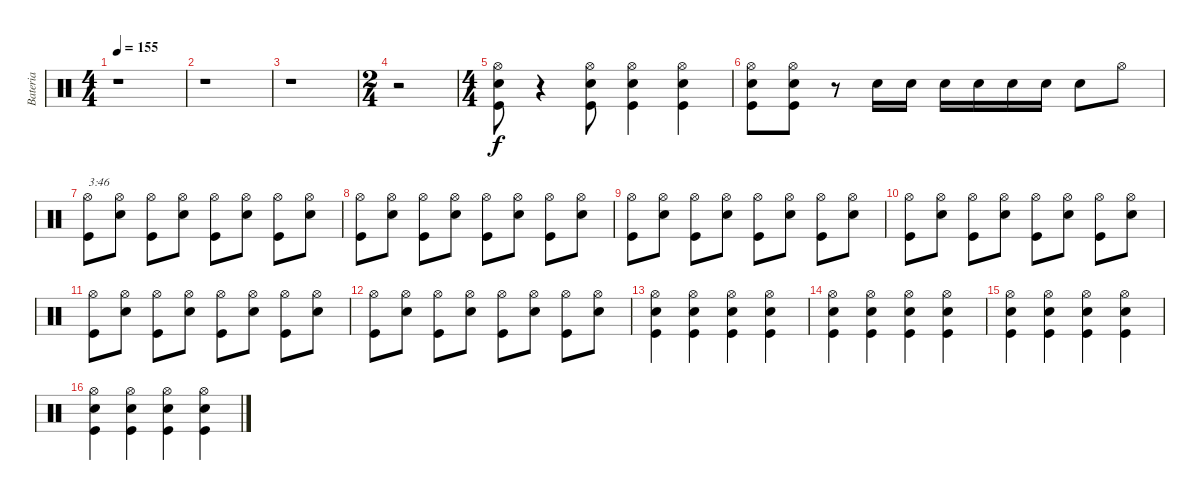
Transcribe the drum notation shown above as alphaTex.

\track ("Bateria" "Bateria") {instrument percussion}
\staff {score}
\articulation defaults
\ts (4 4)
\tempo 155
\clef neutral
\ks c
r.1{dy f} |
r.1 |
r.1 |
\ts (2 4)
r.2 |
\ts (4 4)
("Kick (hit)" "Snare (hit) 2" "Hi-Hat (open)").8 r.4 ("Kick (hit)" "Snare (hit) 2" "Hi-Hat (open)").8 ("Kick (hit)" "Snare (hit) 2" "Hi-Hat (open)").4 ("Kick (hit)" "Snare (hit) 2" "Hi-Hat (open)").4 |
("Kick (hit)" "Snare (hit) 2" "Hi-Hat (open)").8 ("Kick (hit)" "Snare (hit) 2" "Hi-Hat (open)").8 r.8 "Snare (hit) 2".16 "Snare (hit) 2".16 "Snare (hit) 2".16 "Snare (hit) 2".16 "Snare (hit) 2".16 "Snare (hit) 2".16 "Snare (hit) 2".8 "Hi-Hat (open)".8 |
("Kick (hit)" "Hi-Hat (open)").8{txt "3:46"} ("Snare (hit) 2" "Hi-Hat (open)").8 ("Kick (hit)" "Hi-Hat (open)").8 ("Snare (hit) 2" "Hi-Hat (open)").8 ("Kick (hit)" "Hi-Hat (open)").8 ("Snare (hit) 2" "Hi-Hat (open)").8 ("Kick (hit)" "Hi-Hat (open)").8 ("Snare (hit) 2" "Hi-Hat (open)").8 |
("Kick (hit)" "Hi-Hat (open)").8 ("Snare (hit) 2" "Hi-Hat (open)").8 ("Kick (hit)" "Hi-Hat (open)").8 ("Snare (hit) 2" "Hi-Hat (open)").8 ("Kick (hit)" "Hi-Hat (open)").8 ("Snare (hit) 2" "Hi-Hat (open)").8 ("Kick (hit)" "Hi-Hat (open)").8 ("Snare (hit) 2" "Hi-Hat (open)").8 |
("Kick (hit)" "Hi-Hat (open)").8 ("Snare (hit) 2" "Hi-Hat (open)").8 ("Kick (hit)" "Hi-Hat (open)").8 ("Snare (hit) 2" "Hi-Hat (open)").8 ("Kick (hit)" "Hi-Hat (open)").8 ("Snare (hit) 2" "Hi-Hat (open)").8 ("Kick (hit)" "Hi-Hat (open)").8 ("Snare (hit) 2" "Hi-Hat (open)").8 |
("Kick (hit)" "Hi-Hat (open)").8 ("Snare (hit) 2" "Hi-Hat (open)").8 ("Kick (hit)" "Hi-Hat (open)").8 ("Snare (hit) 2" "Hi-Hat (open)").8 ("Kick (hit)" "Hi-Hat (open)").8 ("Snare (hit) 2" "Hi-Hat (open)").8 ("Kick (hit)" "Hi-Hat (open)").8 ("Snare (hit) 2" "Hi-Hat (open)").8 |
("Kick (hit)" "Hi-Hat (open)").8 ("Snare (hit) 2" "Hi-Hat (open)").8 ("Kick (hit)" "Hi-Hat (open)").8 ("Snare (hit) 2" "Hi-Hat (open)").8 ("Kick (hit)" "Hi-Hat (open)").8 ("Snare (hit) 2" "Hi-Hat (open)").8 ("Kick (hit)" "Hi-Hat (open)").8 ("Snare (hit) 2" "Hi-Hat (open)").8 |
("Kick (hit)" "Hi-Hat (open)").8 ("Snare (hit) 2" "Hi-Hat (open)").8 ("Kick (hit)" "Hi-Hat (open)").8 ("Snare (hit) 2" "Hi-Hat (open)").8 ("Kick (hit)" "Hi-Hat (open)").8 ("Snare (hit) 2" "Hi-Hat (open)").8 ("Kick (hit)" "Hi-Hat (open)").8 ("Snare (hit) 2" "Hi-Hat (open)").8 |
("Kick (hit)" "Snare (hit) 2" "Hi-Hat (open)").4 ("Kick (hit)" "Snare (hit) 2" "Hi-Hat (open)").4 ("Kick (hit)" "Snare (hit) 2" "Hi-Hat (open)").4 ("Kick (hit)" "Snare (hit) 2" "Hi-Hat (open)").4 |
("Kick (hit)" "Snare (hit) 2" "Hi-Hat (open)").4 ("Kick (hit)" "Snare (hit) 2" "Hi-Hat (open)").4 ("Kick (hit)" "Snare (hit) 2" "Hi-Hat (open)").4 ("Kick (hit)" "Snare (hit) 2" "Hi-Hat (open)").4 |
("Kick (hit)" "Snare (hit) 2" "Hi-Hat (open)").4 ("Kick (hit)" "Snare (hit) 2" "Hi-Hat (open)").4 ("Kick (hit)" "Snare (hit) 2" "Hi-Hat (open)").4 ("Kick (hit)" "Snare (hit) 2" "Hi-Hat (open)").4 |
("Kick (hit)" "Snare (hit) 2" "Hi-Hat (open)").4 ("Kick (hit)" "Snare (hit) 2" "Hi-Hat (open)").4 ("Kick (hit)" "Snare (hit) 2" "Hi-Hat (open)").4 ("Kick (hit)" "Snare (hit) 2" "Hi-Hat (open)").4
